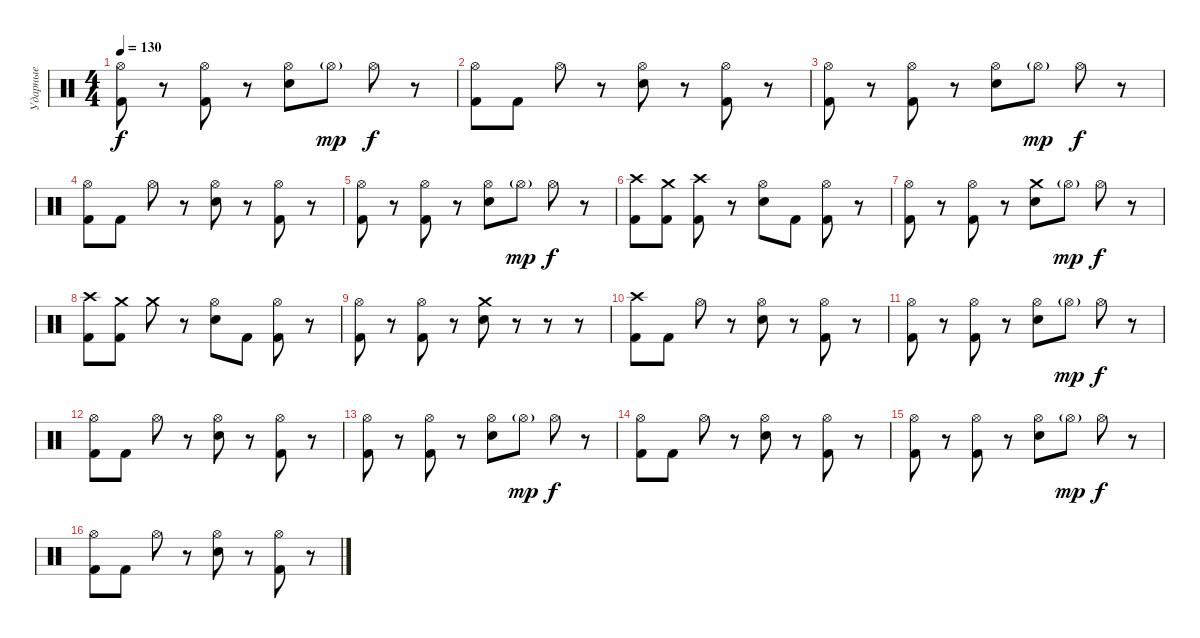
\track ("Ударные" "Ударные") {instrument percussion}
\staff {score}
\articulation defaults
\ts (4 4)
\tempo 130
\clef neutral
\ks c
("Hi-Hat (open)" "Kick (hit) 2").8{dy f} r.8 ("Hi-Hat (open)" "Kick (hit) 2").8 r.8 ("Hi-Hat (open)" "Snare (hit) 2").8 "Hi-Hat (open)"{g}.8{dy mp} "Hi-Hat (open)".8{dy f} r.8 |
("Hi-Hat (open)" "Kick (hit) 2").8 "Kick (hit) 2".8 "Hi-Hat (open)".8 r.8 ("Hi-Hat (open)" "Snare (hit) 2").8 r.8 ("Hi-Hat (open)" "Kick (hit) 2").8 r.8 |
("Hi-Hat (open)" "Kick (hit) 2").8 r.8 ("Hi-Hat (open)" "Kick (hit) 2").8 r.8 ("Hi-Hat (open)" "Snare (hit) 2").8 "Hi-Hat (open)"{g}.8{dy mp} "Hi-Hat (open)".8{dy f} r.8 |
("Hi-Hat (open)" "Kick (hit) 2").8 "Kick (hit) 2".8 "Hi-Hat (open)".8 r.8 ("Hi-Hat (open)" "Snare (hit) 2").8 r.8 ("Hi-Hat (open)" "Kick (hit) 2").8 r.8 |
("Hi-Hat (open)" "Kick (hit) 2").8 r.8 ("Hi-Hat (open)" "Kick (hit) 2").8 r.8 ("Hi-Hat (open)" "Snare (hit) 2").8 "Hi-Hat (open)"{g}.8{dy mp} "Hi-Hat (open)".8{dy f} r.8 |
("Crash high (hit)" "Kick (hit) 2").8 ("Crash medium (hit)" "Kick (hit) 2").8 ("Crash high (hit)" "Kick (hit) 2").8 r.8 ("Hi-Hat (open)" "Snare (hit) 2").8 "Kick (hit) 2".8 ("Hi-Hat (open)" "Kick (hit) 2").8 r.8 |
("Hi-Hat (open)" "Kick (hit) 2").8 r.8 ("Hi-Hat (open)" "Kick (hit) 2").8 r.8 ("Crash medium (hit)" "Snare (hit) 2").8 "Hi-Hat (open)"{g}.8{dy mp} "Hi-Hat (open)".8{dy f} r.8 |
("Crash high (hit)" "Kick (hit) 2").8 ("Crash medium (hit)" "Kick (hit) 2").8 "Crash medium (hit)".8 r.8 ("Hi-Hat (open)" "Snare (hit) 2").8 "Kick (hit) 2".8 ("Hi-Hat (open)" "Kick (hit) 2").8 r.8 |
("Hi-Hat (open)" "Kick (hit) 2").8 r.8 ("Hi-Hat (open)" "Kick (hit) 2").8 r.8 ("Crash medium (hit)" "Snare (hit) 2").8 r.8 r.8 r.8 |
("Crash high (hit)" "Kick (hit) 2").8 "Kick (hit) 2".8 "Hi-Hat (open)".8 r.8 ("Hi-Hat (open)" "Snare (hit) 2").8 r.8 ("Hi-Hat (open)" "Kick (hit) 2").8 r.8 |
("Hi-Hat (open)" "Kick (hit) 2").8 r.8 ("Hi-Hat (open)" "Kick (hit) 2").8 r.8 ("Hi-Hat (open)" "Snare (hit) 2").8 "Hi-Hat (open)"{g}.8{dy mp} "Hi-Hat (open)".8{dy f} r.8 |
("Hi-Hat (open)" "Kick (hit) 2").8 "Kick (hit) 2".8 "Hi-Hat (open)".8 r.8 ("Hi-Hat (open)" "Snare (hit) 2").8 r.8 ("Hi-Hat (open)" "Kick (hit) 2").8 r.8 |
("Hi-Hat (open)" "Kick (hit) 2").8 r.8 ("Hi-Hat (open)" "Kick (hit) 2").8 r.8 ("Hi-Hat (open)" "Snare (hit) 2").8 "Hi-Hat (open)"{g}.8{dy mp} "Hi-Hat (open)".8{dy f} r.8 |
("Hi-Hat (open)" "Kick (hit) 2").8 "Kick (hit) 2".8 "Hi-Hat (open)".8 r.8 ("Hi-Hat (open)" "Snare (hit) 2").8 r.8 ("Hi-Hat (open)" "Kick (hit) 2").8 r.8 |
("Hi-Hat (open)" "Kick (hit) 2").8 r.8 ("Hi-Hat (open)" "Kick (hit) 2").8 r.8 ("Hi-Hat (open)" "Snare (hit) 2").8 "Hi-Hat (open)"{g}.8{dy mp} "Hi-Hat (open)".8{dy f} r.8 |
("Hi-Hat (open)" "Kick (hit) 2").8 "Kick (hit) 2".8 "Hi-Hat (open)".8 r.8 ("Hi-Hat (open)" "Snare (hit) 2").8 r.8 ("Hi-Hat (open)" "Kick (hit) 2").8 r.8
